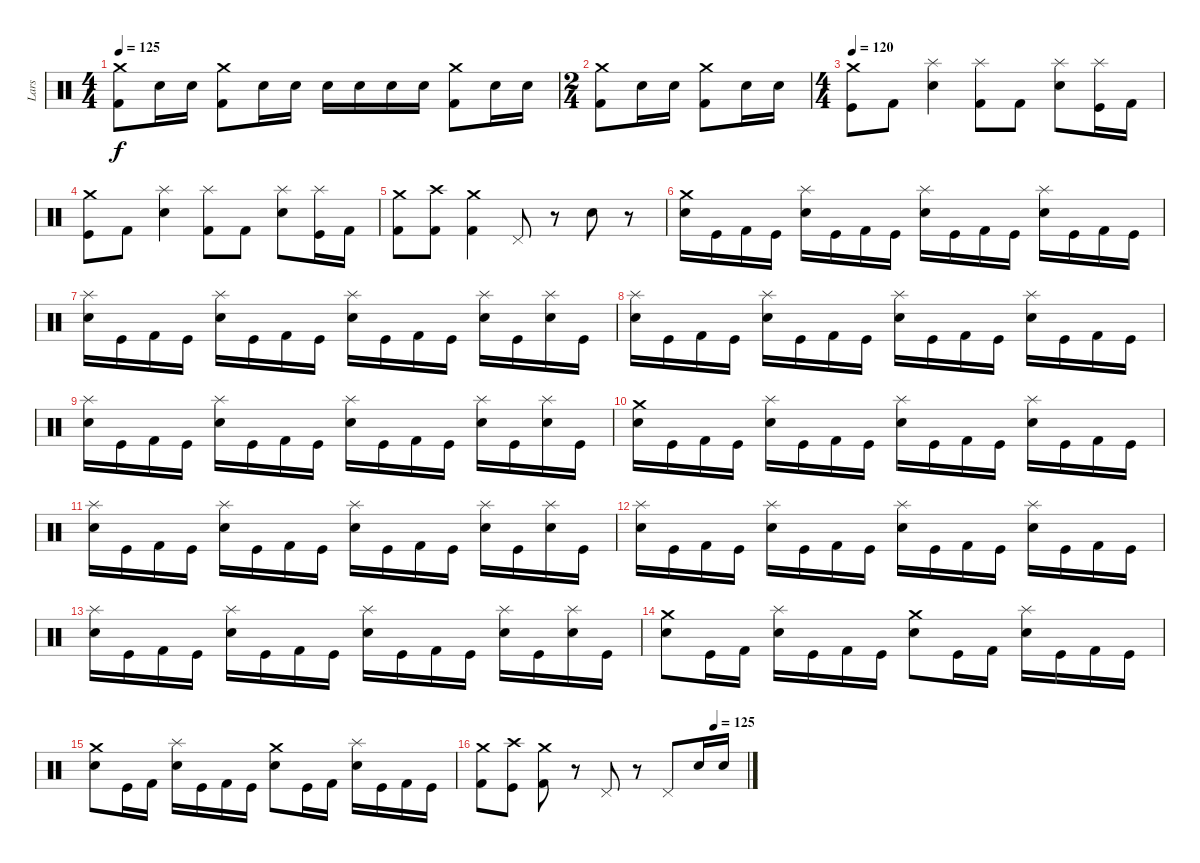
\track ("Lars" "Lars") {instrument percussion}
\staff {score}
\articulation defaults
\ts (4 4)
\tempo 125
\clef neutral
\ks c
("Crash medium (hit)" "Kick (hit) 2").8{dy f} "Snare (hit) 2".16 "Snare (hit) 2".16 ("Crash medium (hit)" "Kick (hit) 2").8 "Snare (hit) 2".16 "Snare (hit) 2".16 "Snare (hit) 2".16 "Snare (hit) 2".16 "Snare (hit) 2".16 "Snare (hit) 2".16 ("Crash medium (hit)" "Kick (hit) 2").8 "Snare (hit) 2".16 "Snare (hit) 2".16 |
\ts (2 4)
("Crash medium (hit)" "Kick (hit) 2").8 "Snare (hit) 2".16 "Snare (hit) 2".16 ("Crash medium (hit)" "Kick (hit) 2").8 "Snare (hit) 2".16 "Snare (hit) 2".16 |
\ts (4 4)
\tempo 120
("Crash medium (hit)" "Kick (hit)").8 "Kick (hit) 2".8 ("Splash (hit)" "Snare (hit) 2").4 ("Splash (hit)" "Kick (hit) 2").8 "Kick (hit) 2".8 ("Splash (hit)" "Snare (hit) 2").8 ("Splash (hit)" "Kick (hit)").16 "Kick (hit) 2".16 |
("Crash medium (hit)" "Kick (hit)").8 "Kick (hit) 2".8 ("Splash (hit)" "Snare (hit) 2").4 ("Splash (hit)" "Kick (hit) 2").8 "Kick (hit) 2".8 ("Splash (hit)" "Snare (hit) 2").8 ("Splash (hit)" "Kick (hit)").16 "Kick (hit) 2".16 |
("Crash medium (hit)" "Kick (hit) 2").8 ("Crash high (hit)" "Kick (hit) 2").8 ("Crash medium (hit)" "Kick (hit) 2").4 "Pedal Hi-Hat (hit)".8 r.8 "Snare (hit) 2".8 r.8 |
("Crash medium (hit)" "Snare (hit) 2").16 "Kick (hit)".16 "Kick (hit) 2".16 "Kick (hit)".16 ("Splash (hit)" "Snare (hit) 2").16 "Kick (hit)".16 "Kick (hit) 2".16 "Kick (hit)".16 ("Splash (hit)" "Snare (hit) 2").16 "Kick (hit)".16 "Kick (hit) 2".16 "Kick (hit)".16 ("Splash (hit)" "Snare (hit) 2").16 "Kick (hit)".16 "Kick (hit) 2".16 "Kick (hit)".16 |
("Splash (hit)" "Snare (hit) 2").16 "Kick (hit)".16 "Kick (hit) 2".16 "Kick (hit)".16 ("Splash (hit)" "Snare (hit) 2").16 "Kick (hit)".16 "Kick (hit) 2".16 "Kick (hit)".16 ("Splash (hit)" "Snare (hit) 2").16 "Kick (hit)".16 "Kick (hit) 2".16 "Kick (hit)".16 ("Splash (hit)" "Snare (hit) 2").16 "Kick (hit)".16 ("Splash (hit)" "Snare (hit) 2").16 "Kick (hit)".16 |
("Splash (hit)" "Snare (hit) 2").16 "Kick (hit)".16 "Kick (hit) 2".16 "Kick (hit)".16 ("Splash (hit)" "Snare (hit) 2").16 "Kick (hit)".16 "Kick (hit) 2".16 "Kick (hit)".16 ("Splash (hit)" "Snare (hit) 2").16 "Kick (hit)".16 "Kick (hit) 2".16 "Kick (hit)".16 ("Splash (hit)" "Snare (hit) 2").16 "Kick (hit)".16 "Kick (hit) 2".16 "Kick (hit)".16 |
("Splash (hit)" "Snare (hit) 2").16 "Kick (hit)".16 "Kick (hit) 2".16 "Kick (hit)".16 ("Splash (hit)" "Snare (hit) 2").16 "Kick (hit)".16 "Kick (hit) 2".16 "Kick (hit)".16 ("Splash (hit)" "Snare (hit) 2").16 "Kick (hit)".16 "Kick (hit) 2".16 "Kick (hit)".16 ("Splash (hit)" "Snare (hit) 2").16 "Kick (hit)".16 ("Splash (hit)" "Snare (hit) 2").16 "Kick (hit)".16 |
("Crash medium (hit)" "Snare (hit) 2").16 "Kick (hit)".16 "Kick (hit) 2".16 "Kick (hit)".16 ("Splash (hit)" "Snare (hit) 2").16 "Kick (hit)".16 "Kick (hit) 2".16 "Kick (hit)".16 ("Splash (hit)" "Snare (hit) 2").16 "Kick (hit)".16 "Kick (hit) 2".16 "Kick (hit)".16 ("Splash (hit)" "Snare (hit) 2").16 "Kick (hit)".16 "Kick (hit) 2".16 "Kick (hit)".16 |
("Splash (hit)" "Snare (hit) 2").16 "Kick (hit)".16 "Kick (hit) 2".16 "Kick (hit)".16 ("Splash (hit)" "Snare (hit) 2").16 "Kick (hit)".16 "Kick (hit) 2".16 "Kick (hit)".16 ("Splash (hit)" "Snare (hit) 2").16 "Kick (hit)".16 "Kick (hit) 2".16 "Kick (hit)".16 ("Splash (hit)" "Snare (hit) 2").16 "Kick (hit)".16 ("Splash (hit)" "Snare (hit) 2").16 "Kick (hit)".16 |
("Splash (hit)" "Snare (hit) 2").16 "Kick (hit)".16 "Kick (hit) 2".16 "Kick (hit)".16 ("Splash (hit)" "Snare (hit) 2").16 "Kick (hit)".16 "Kick (hit) 2".16 "Kick (hit)".16 ("Splash (hit)" "Snare (hit) 2").16 "Kick (hit)".16 "Kick (hit) 2".16 "Kick (hit)".16 ("Splash (hit)" "Snare (hit) 2").16 "Kick (hit)".16 "Kick (hit) 2".16 "Kick (hit)".16 |
("Splash (hit)" "Snare (hit) 2").16 "Kick (hit)".16 "Kick (hit) 2".16 "Kick (hit)".16 ("Splash (hit)" "Snare (hit) 2").16 "Kick (hit)".16 "Kick (hit) 2".16 "Kick (hit)".16 ("Splash (hit)" "Snare (hit) 2").16 "Kick (hit)".16 "Kick (hit) 2".16 "Kick (hit)".16 ("Splash (hit)" "Snare (hit) 2").16 "Kick (hit)".16 ("Splash (hit)" "Snare (hit) 2").16 "Kick (hit)".16 |
("Crash medium (hit)" "Snare (hit) 2").8 "Kick (hit)".16 "Kick (hit) 2".16 ("Splash (hit)" "Snare (hit) 2").16 "Kick (hit)".16 "Kick (hit) 2".16 "Kick (hit)".16 ("Crash medium (hit)" "Snare (hit) 2").8 "Kick (hit)".16 "Kick (hit) 2".16 ("Splash (hit)" "Snare (hit) 2").16 "Kick (hit)".16 "Kick (hit) 2".16 "Kick (hit)".16 |
("Crash medium (hit)" "Snare (hit) 2").8 "Kick (hit)".16 "Kick (hit) 2".16 ("Splash (hit)" "Snare (hit) 2").16 "Kick (hit)".16 "Kick (hit) 2".16 "Kick (hit)".16 ("Crash medium (hit)" "Snare (hit) 2").8 "Kick (hit)".16 "Kick (hit) 2".16 ("Splash (hit)" "Snare (hit) 2").16 "Kick (hit)".16 "Kick (hit) 2".16 "Kick (hit)".16 |
\tempo (125 0.875)
("Crash medium (hit)" "Kick (hit) 2").8 ("Crash high (hit)" "Kick (hit)").8 ("Crash medium (hit)" "Kick (hit) 2").8 r.8 "Pedal Hi-Hat (hit)".8 r.8 "Pedal Hi-Hat (hit)".8 "Snare (hit) 2".16 "Snare (hit) 2".16
